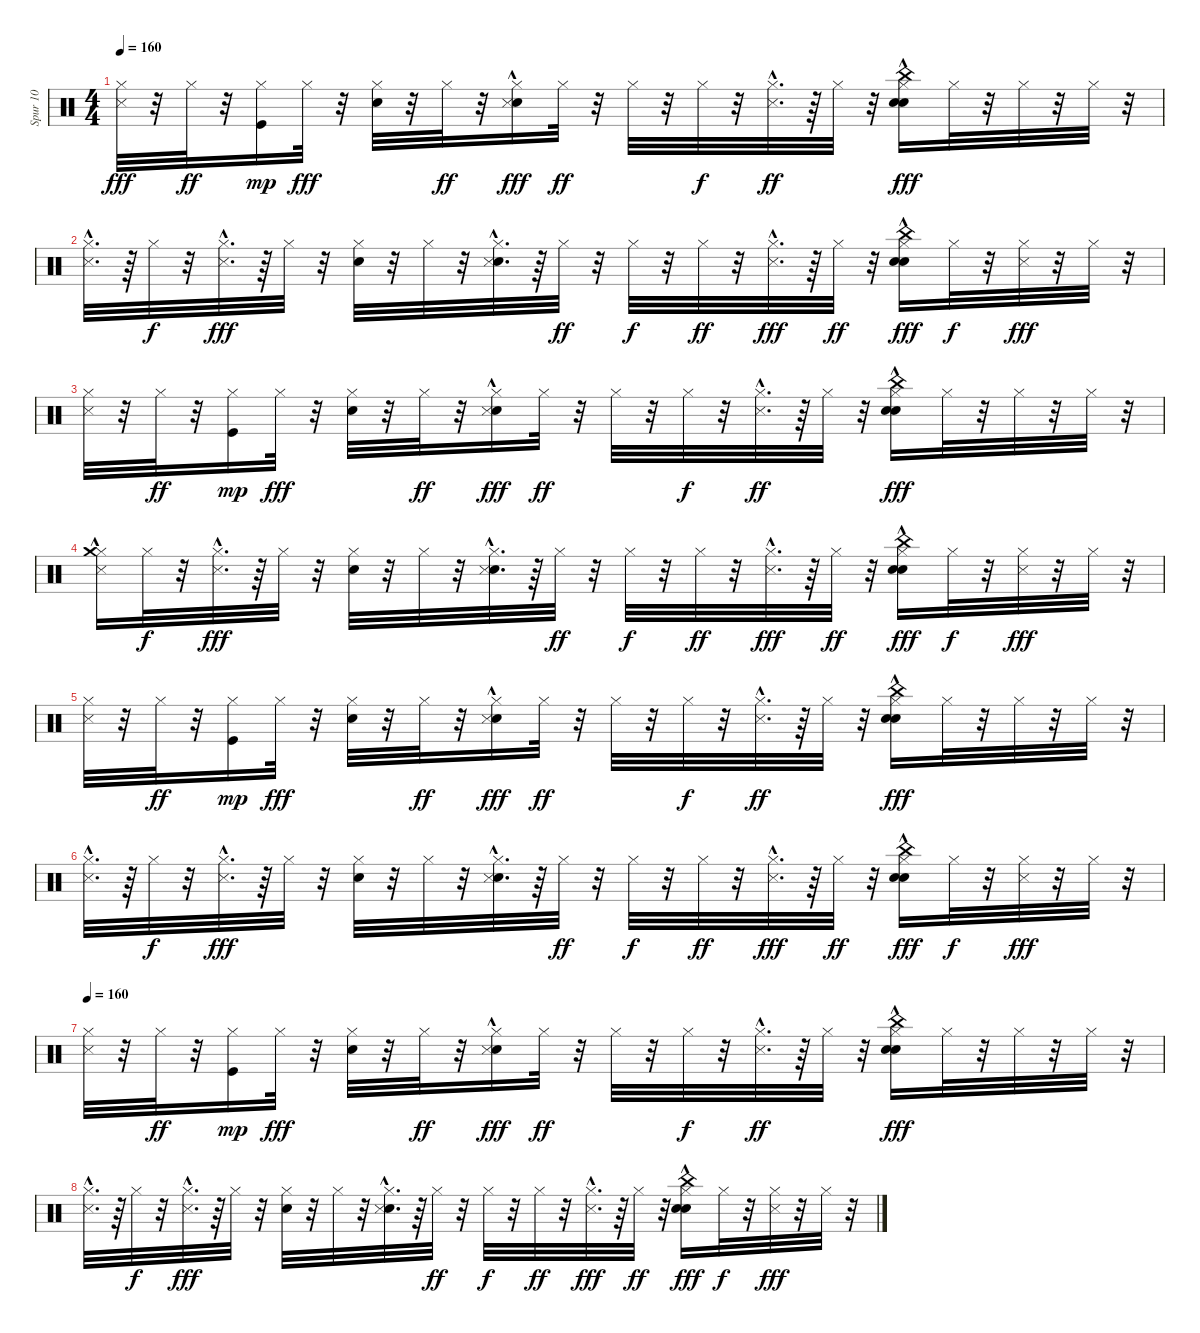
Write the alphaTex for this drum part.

\track ("Spur 10" "Spur 10") {instrument percussion}
\staff {score}
\articulation defaults
\ts (4 4)
\tempo 160
\clef neutral
\ks c
("Hi-Hat (closed)" "Metronome (hit)").32{dy fff} r.32 "Hi-Hat (closed)".32{dy ff} r.32 ("Hi-Hat (closed)" "Kick (hit)").16{dy mp} "Hi-Hat (closed)".32{dy fff} r.32 ("Hi-Hat (closed)" "Snare (hit) 2").32 r.32 "Hi-Hat (closed)".32{dy ff} r.32 ("Hi-Hat (closed)" "Snare (hit) 2" "Metronome (hit)"{hac}).16{dy fff} "Hi-Hat (closed)".32{dy ff} r.32 "Hi-Hat (closed)".32 r.32 "Hi-Hat (closed)".32{dy f} r.32 ("Hi-Hat (closed)" "Metronome (hit)"{hac}).32{d dy ff} r.64 "Hi-Hat (closed)".32 r.32 ("Hi-Hat (closed)" "Snare (hit) 2"{hac} "China (hit)" "Hand Clap (hit)").16{dy fff} "Hi-Hat (closed)".32 r.32 "Hi-Hat (closed)".32 r.32 "Hi-Hat (closed)".32 r.32 |
("Hi-Hat (closed)" "Metronome (hit)"{hac}).32{d} r.64 "Hi-Hat (closed)".32{dy f} r.32 ("Hi-Hat (closed)" "Metronome (hit)"{hac}).32{d dy fff} r.64 "Hi-Hat (closed)".32 r.32 ("Hi-Hat (closed)" "Snare (hit) 2").32 r.32 "Hi-Hat (closed)".32 r.32 ("Hi-Hat (closed)" "Snare (hit) 2"{hac} "Metronome (hit)"{hac}).32{d} r.64 "Hi-Hat (closed)".32{dy ff} r.32 "Hi-Hat (closed)".32{dy f} r.32 "Hi-Hat (closed)".32{dy ff} r.32 ("Hi-Hat (closed)" "Metronome (hit)"{hac}).32{d dy fff} r.64 "Hi-Hat (closed)".32{dy ff} r.32 ("Hi-Hat (closed)" "Snare (hit) 2"{hac} "China (hit)" "Hand Clap (hit)").16{dy fff} "Hi-Hat (closed)".32{dy f} r.32 ("Hi-Hat (closed)" "Metronome (hit)").32{dy fff} r.32 "Hi-Hat (closed)".32 r.32 |
("Hi-Hat (closed)" "Metronome (hit)").32 r.32 "Hi-Hat (closed)".32{dy ff} r.32 ("Hi-Hat (closed)" "Kick (hit)").16{dy mp} "Hi-Hat (closed)".32{dy fff} r.32 ("Hi-Hat (closed)" "Snare (hit) 2").32 r.32 "Hi-Hat (closed)".32{dy ff} r.32 ("Hi-Hat (closed)" "Snare (hit) 2" "Metronome (hit)"{hac}).16{dy fff} "Hi-Hat (closed)".32{dy ff} r.32 "Hi-Hat (closed)".32 r.32 "Hi-Hat (closed)".32{dy f} r.32 ("Hi-Hat (closed)" "Metronome (hit)"{hac}).32{d dy ff} r.64 "Hi-Hat (closed)".32 r.32 ("Hi-Hat (closed)" "Snare (hit) 2"{hac} "China (hit)" "Hand Clap (hit)").16{dy fff} "Hi-Hat (closed)".32 r.32 "Hi-Hat (closed)".32 r.32 "Hi-Hat (closed)".32 r.32 |
("Hi-Hat (closed)" "Metronome (hit)"{hac} "Crash medium (hit)").16 "Hi-Hat (closed)".32{dy f} r.32 ("Hi-Hat (closed)" "Metronome (hit)"{hac}).32{d dy fff} r.64 "Hi-Hat (closed)".32 r.32 ("Hi-Hat (closed)" "Snare (hit) 2").32 r.32 "Hi-Hat (closed)".32 r.32 ("Hi-Hat (closed)" "Snare (hit) 2"{hac} "Metronome (hit)"{hac}).32{d} r.64 "Hi-Hat (closed)".32{dy ff} r.32 "Hi-Hat (closed)".32{dy f} r.32 "Hi-Hat (closed)".32{dy ff} r.32 ("Hi-Hat (closed)" "Metronome (hit)"{hac}).32{d dy fff} r.64 "Hi-Hat (closed)".32{dy ff} r.32 ("Hi-Hat (closed)" "Snare (hit) 2"{hac} "China (hit)" "Hand Clap (hit)").16{dy fff} "Hi-Hat (closed)".32{dy f} r.32 ("Hi-Hat (closed)" "Metronome (hit)").32{dy fff} r.32 "Hi-Hat (closed)".32 r.32 |
("Hi-Hat (closed)" "Metronome (hit)").32 r.32 "Hi-Hat (closed)".32{dy ff} r.32 ("Hi-Hat (closed)" "Kick (hit)").16{dy mp} "Hi-Hat (closed)".32{dy fff} r.32 ("Hi-Hat (closed)" "Snare (hit) 2").32 r.32 "Hi-Hat (closed)".32{dy ff} r.32 ("Hi-Hat (closed)" "Snare (hit) 2" "Metronome (hit)"{hac}).16{dy fff} "Hi-Hat (closed)".32{dy ff} r.32 "Hi-Hat (closed)".32 r.32 "Hi-Hat (closed)".32{dy f} r.32 ("Hi-Hat (closed)" "Metronome (hit)"{hac}).32{d dy ff} r.64 "Hi-Hat (closed)".32 r.32 ("Hi-Hat (closed)" "Snare (hit) 2"{hac} "China (hit)" "Hand Clap (hit)").16{dy fff} "Hi-Hat (closed)".32 r.32 "Hi-Hat (closed)".32 r.32 "Hi-Hat (closed)".32 r.32 |
("Hi-Hat (closed)" "Metronome (hit)"{hac}).32{d} r.64 "Hi-Hat (closed)".32{dy f} r.32 ("Hi-Hat (closed)" "Metronome (hit)"{hac}).32{d dy fff} r.64 "Hi-Hat (closed)".32 r.32 ("Hi-Hat (closed)" "Snare (hit) 2").32 r.32 "Hi-Hat (closed)".32 r.32 ("Hi-Hat (closed)" "Snare (hit) 2"{hac} "Metronome (hit)"{hac}).32{d} r.64 "Hi-Hat (closed)".32{dy ff} r.32 "Hi-Hat (closed)".32{dy f} r.32 "Hi-Hat (closed)".32{dy ff} r.32 ("Hi-Hat (closed)" "Metronome (hit)"{hac}).32{d dy fff} r.64 "Hi-Hat (closed)".32{dy ff} r.32 ("Hi-Hat (closed)" "Snare (hit) 2"{hac} "China (hit)" "Hand Clap (hit)").16{dy fff} "Hi-Hat (closed)".32{dy f} r.32 ("Hi-Hat (closed)" "Metronome (hit)").32{dy fff} r.32 "Hi-Hat (closed)".32 r.32 |
\tempo 160
("Hi-Hat (closed)" "Metronome (hit)").32 r.32 "Hi-Hat (closed)".32{dy ff} r.32 ("Hi-Hat (closed)" "Kick (hit)").16{dy mp} "Hi-Hat (closed)".32{dy fff} r.32 ("Hi-Hat (closed)" "Snare (hit) 2").32 r.32 "Hi-Hat (closed)".32{dy ff} r.32 ("Hi-Hat (closed)" "Snare (hit) 2" "Metronome (hit)"{hac}).16{dy fff} "Hi-Hat (closed)".32{dy ff} r.32 "Hi-Hat (closed)".32 r.32 "Hi-Hat (closed)".32{dy f} r.32 ("Hi-Hat (closed)" "Metronome (hit)"{hac}).32{d dy ff} r.64 "Hi-Hat (closed)".32 r.32 ("Hi-Hat (closed)" "Snare (hit) 2"{hac} "China (hit)" "Hand Clap (hit)").16{dy fff} "Hi-Hat (closed)".32 r.32 "Hi-Hat (closed)".32 r.32 "Hi-Hat (closed)".32 r.32 |
("Hi-Hat (closed)" "Metronome (hit)"{hac}).32{d} r.64 "Hi-Hat (closed)".32{dy f} r.32 ("Hi-Hat (closed)" "Metronome (hit)"{hac}).32{d dy fff} r.64 "Hi-Hat (closed)".32 r.32 ("Hi-Hat (closed)" "Snare (hit) 2").32 r.32 "Hi-Hat (closed)".32 r.32 ("Hi-Hat (closed)" "Snare (hit) 2"{hac} "Metronome (hit)"{hac}).32{d} r.64 "Hi-Hat (closed)".32{dy ff} r.32 "Hi-Hat (closed)".32{dy f} r.32 "Hi-Hat (closed)".32{dy ff} r.32 ("Hi-Hat (closed)" "Metronome (hit)"{hac}).32{d dy fff} r.64 "Hi-Hat (closed)".32{dy ff} r.32 ("Hi-Hat (closed)" "Snare (hit) 2"{hac} "China (hit)" "Hand Clap (hit)").16{dy fff} "Hi-Hat (closed)".32{dy f} r.32 ("Hi-Hat (closed)" "Metronome (hit)").32{dy fff} r.32 "Hi-Hat (closed)".32 r.32
